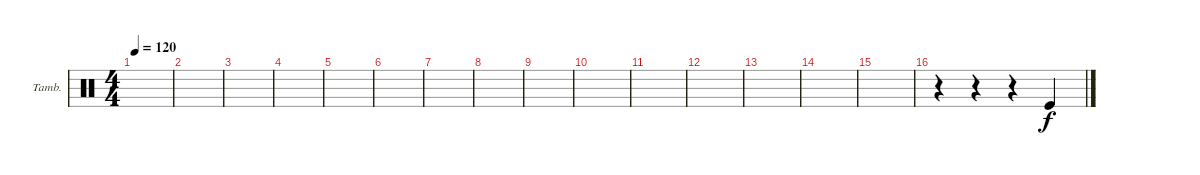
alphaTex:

\defaultSystemsLayout 4
\bracketExtendMode groupsimilarinstruments
\firstSystemTrackNameOrientation horizontal
\otherSystemsTrackNameOrientation horizontal
\track ("Tambourine" "Tamb.") {instrument percussion}
\staff {score}
\articulation defaults
\ts (4 4)
\tempo 120
\clef neutral
\ks c
|
|
|
|
|
|
|
|
|
|
|
|
|
|
|
r.4 r.4 r.4 "Kick (hit)".4
